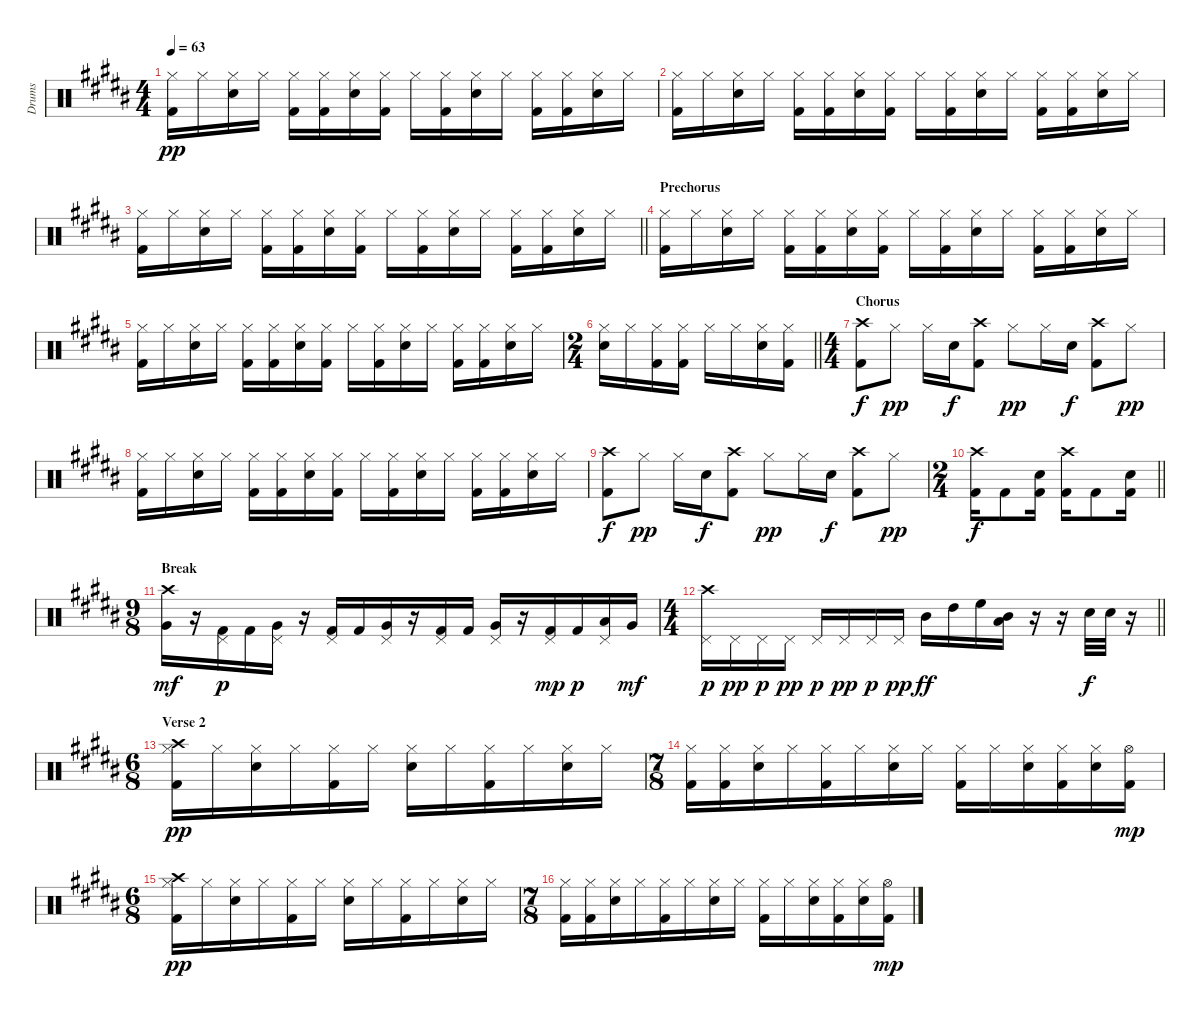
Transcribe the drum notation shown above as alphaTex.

\track ("Drums" "Drums") {instrument percussion}
\staff {score}
\articulation defaults
\ts (4 4)
\tempo 63
\clef neutral
\ks b
("Hi-Hat (closed)" "Kick (hit) 2").16{dy pp} "Hi-Hat (closed)".16 ("Snare (hit) 2" "Hi-Hat (closed)").16 "Hi-Hat (closed)".16 ("Hi-Hat (closed)" "Kick (hit) 2").16 ("Hi-Hat (closed)" "Kick (hit) 2").16 ("Snare (hit) 2" "Hi-Hat (closed)").16 ("Hi-Hat (closed)" "Kick (hit) 2").16 "Hi-Hat (closed)".16 ("Hi-Hat (closed)" "Kick (hit) 2").16 ("Snare (hit) 2" "Hi-Hat (closed)").16 "Hi-Hat (closed)".16 ("Hi-Hat (closed)" "Kick (hit) 2").16 ("Hi-Hat (closed)" "Kick (hit) 2").16 ("Snare (hit) 2" "Hi-Hat (closed)").16 "Hi-Hat (closed)".16 |
("Hi-Hat (closed)" "Kick (hit) 2").16 "Hi-Hat (closed)".16 ("Snare (hit) 2" "Hi-Hat (closed)").16 "Hi-Hat (closed)".16 ("Hi-Hat (closed)" "Kick (hit) 2").16 ("Hi-Hat (closed)" "Kick (hit) 2").16 ("Snare (hit) 2" "Hi-Hat (closed)").16 ("Hi-Hat (closed)" "Kick (hit) 2").16 "Hi-Hat (closed)".16 ("Hi-Hat (closed)" "Kick (hit) 2").16 ("Snare (hit) 2" "Hi-Hat (closed)").16 "Hi-Hat (closed)".16 ("Hi-Hat (closed)" "Kick (hit) 2").16 ("Hi-Hat (closed)" "Kick (hit) 2").16 ("Snare (hit) 2" "Hi-Hat (closed)").16 "Hi-Hat (closed)".16 |
\barLineRight lightlight
("Hi-Hat (closed)" "Kick (hit) 2").16 "Hi-Hat (closed)".16 ("Snare (hit) 2" "Hi-Hat (closed)").16 "Hi-Hat (closed)".16 ("Hi-Hat (closed)" "Kick (hit) 2").16 ("Hi-Hat (closed)" "Kick (hit) 2").16 ("Snare (hit) 2" "Hi-Hat (closed)").16 ("Hi-Hat (closed)" "Kick (hit) 2").16 "Hi-Hat (closed)".16 ("Hi-Hat (closed)" "Kick (hit) 2").16 ("Snare (hit) 2" "Hi-Hat (closed)").16 "Hi-Hat (closed)".16 ("Hi-Hat (closed)" "Kick (hit) 2").16 ("Hi-Hat (closed)" "Kick (hit) 2").16 ("Snare (hit) 2" "Hi-Hat (closed)").16 "Hi-Hat (closed)".16 |
\section ("" "Prechorus")
("Hi-Hat (closed)" "Kick (hit) 2").16 "Hi-Hat (closed)".16 ("Snare (hit) 2" "Hi-Hat (closed)").16 "Hi-Hat (closed)".16 ("Hi-Hat (closed)" "Kick (hit) 2").16 ("Hi-Hat (closed)" "Kick (hit) 2").16 ("Snare (hit) 2" "Hi-Hat (closed)").16 ("Hi-Hat (closed)" "Kick (hit) 2").16 "Hi-Hat (closed)".16 ("Hi-Hat (closed)" "Kick (hit) 2").16 ("Snare (hit) 2" "Hi-Hat (closed)").16 "Hi-Hat (closed)".16 ("Hi-Hat (closed)" "Kick (hit) 2").16 ("Hi-Hat (closed)" "Kick (hit) 2").16 ("Snare (hit) 2" "Hi-Hat (closed)").16 "Hi-Hat (closed)".16 |
("Hi-Hat (closed)" "Kick (hit) 2").16 "Hi-Hat (closed)".16 ("Snare (hit) 2" "Hi-Hat (closed)").16 "Hi-Hat (closed)".16 ("Hi-Hat (closed)" "Kick (hit) 2").16 ("Hi-Hat (closed)" "Kick (hit) 2").16 ("Snare (hit) 2" "Hi-Hat (closed)").16 ("Hi-Hat (closed)" "Kick (hit) 2").16 "Hi-Hat (closed)".16 ("Hi-Hat (closed)" "Kick (hit) 2").16 ("Snare (hit) 2" "Hi-Hat (closed)").16 "Hi-Hat (closed)".16 ("Hi-Hat (closed)" "Kick (hit) 2").16 ("Hi-Hat (closed)" "Kick (hit) 2").16 ("Snare (hit) 2" "Hi-Hat (closed)").16 "Hi-Hat (closed)".16 |
\ts (2 4)
\barLineRight lightlight
("Snare (hit) 2" "Hi-Hat (closed)").16 "Hi-Hat (closed)".16 ("Hi-Hat (closed)" "Kick (hit) 2").16 ("Hi-Hat (closed)" "Kick (hit) 2").16 "Hi-Hat (closed)".16 "Hi-Hat (closed)".16 ("Snare (hit) 2" "Hi-Hat (closed)").16 ("Hi-Hat (closed)" "Kick (hit) 2").16 |
\ts (4 4)
\section ("" "Chorus")
("Crash high (hit)" "Kick (hit) 2").8{dy f} "Hi-Hat (closed)".8{dy pp} "Hi-Hat (closed)".16 "Snare (hit) 2".16{dy f} ("Crash high (hit)" "Kick (hit) 2").8 "Hi-Hat (closed)".8{dy pp} "Hi-Hat (closed)".16 "Snare (hit) 2".16{dy f} ("Crash high (hit)" "Kick (hit) 2").8 "Hi-Hat (closed)".8{dy pp} |
("Hi-Hat (closed)" "Kick (hit) 2").16 "Hi-Hat (closed)".16 ("Snare (hit) 2" "Hi-Hat (closed)").16 "Hi-Hat (closed)".16 ("Hi-Hat (closed)" "Kick (hit) 2").16 ("Hi-Hat (closed)" "Kick (hit) 2").16 ("Snare (hit) 2" "Hi-Hat (closed)").16 ("Hi-Hat (closed)" "Kick (hit) 2").16 "Hi-Hat (closed)".16 ("Hi-Hat (closed)" "Kick (hit) 2").16 ("Snare (hit) 2" "Hi-Hat (closed)").16 "Hi-Hat (closed)".16 ("Hi-Hat (closed)" "Kick (hit) 2").16 ("Hi-Hat (closed)" "Kick (hit) 2").16 ("Snare (hit) 2" "Hi-Hat (closed)").16 "Hi-Hat (closed)".16 |
("Crash high (hit)" "Kick (hit) 2").8{dy f} "Hi-Hat (closed)".8{dy pp} "Hi-Hat (closed)".16 "Snare (hit) 2".16{dy f} ("Crash high (hit)" "Kick (hit) 2").8 "Hi-Hat (closed)".8{dy pp} "Hi-Hat (closed)".16 "Snare (hit) 2".16{dy f} ("Crash high (hit)" "Kick (hit) 2").8 "Hi-Hat (closed)".8{dy pp} |
\ts (2 4)
\barLineRight lightlight
("Crash high (hit)" "Kick (hit) 2").16{dy f} "Kick (hit) 2".8 ("Snare (hit) 2" "Kick (hit) 2").16 ("Crash high (hit)" "Kick (hit) 2").16 "Kick (hit) 2".8 ("Snare (hit) 2" "Kick (hit) 2").16 |
\ts (9 8)
\section ("" "Break")
("Crash high (hit)" "Very Low Tom (hit)").16{dy mf} r.16 ("Pedal Hi-Hat (hit)" "Kick (hit) 2").16{dy p} "Kick (hit) 2".16 ("Very Low Tom (hit)" "Pedal Hi-Hat (hit)").16 r.16 ("Pedal Hi-Hat (hit)" "Kick (hit) 2").16 "Kick (hit) 2".16 ("Very Low Tom (hit)" "Pedal Hi-Hat (hit)").16 r.16 ("Pedal Hi-Hat (hit)" "Kick (hit) 2").16 "Kick (hit) 2".16 ("Very Low Tom (hit)" "Pedal Hi-Hat (hit)").16 r.16 ("Pedal Hi-Hat (hit)" "Kick (hit) 2").16{dy mp} "Kick (hit) 2".16{dy p} ("Low Tom (hit)" "Pedal Hi-Hat (hit)").16 "Very Low Tom (hit)".16{dy mf} |
\ts (4 4)
\barLineRight lightlight
("Crash high (hit)" "Pedal Hi-Hat (hit)").16{dy p} "Pedal Hi-Hat (hit)".16{dy pp} "Pedal Hi-Hat (hit)".16{dy p} "Pedal Hi-Hat (hit)".16{dy pp} "Pedal Hi-Hat (hit)".16{dy p} "Pedal Hi-Hat (hit)".16{dy pp} "Pedal Hi-Hat (hit)".16{dy p} "Pedal Hi-Hat (hit)".16{dy pp} "Mid Tom (hit)".16{dy ff} "High Tom (hit)".16 "High Floor Tom (hit)".16 ("Mid Tom (hit)" "Low Tom (hit)").16 r.16 r.16 "Snare (hit) 2".32{dy f} "Snare (hit) 2".32 r.16 |
\ts (6 8)
\section ("" "Verse 2")
("Crash high (hit)" "Hi-Hat (closed)" "Kick (hit) 2").16{dy pp} "Hi-Hat (closed)".16 ("Snare (hit) 2" "Hi-Hat (closed)").16 "Hi-Hat (closed)".16 ("Hi-Hat (closed)" "Kick (hit) 2").16 "Hi-Hat (closed)".16 ("Snare (hit) 2" "Hi-Hat (closed)").16 "Hi-Hat (closed)".16 ("Hi-Hat (closed)" "Kick (hit) 2").16 "Hi-Hat (closed)".16 ("Snare (hit) 2" "Hi-Hat (closed)").16 "Hi-Hat (closed)".16 |
\ts (7 8)
("Hi-Hat (closed)" "Kick (hit) 2").16 ("Hi-Hat (closed)" "Kick (hit) 2").16 ("Snare (hit) 2" "Hi-Hat (closed)").16 "Hi-Hat (closed)".16 ("Hi-Hat (closed)" "Kick (hit) 2").16 "Hi-Hat (closed)".16 ("Snare (hit) 2" "Hi-Hat (closed)").16 "Hi-Hat (closed)".16 ("Hi-Hat (closed)" "Kick (hit) 2").16 "Hi-Hat (closed)".16 ("Snare (hit) 2" "Hi-Hat (closed)").16 ("Hi-Hat (closed)" "Kick (hit) 2").16 ("Snare (hit) 2" "Hi-Hat (closed)").16 ("Hi-Hat (open)" "Kick (hit) 2").16{dy mp} |
\ts (6 8)
("Crash high (hit)" "Hi-Hat (closed)" "Kick (hit) 2").16{dy pp} "Hi-Hat (closed)".16 ("Snare (hit) 2" "Hi-Hat (closed)").16 "Hi-Hat (closed)".16 ("Hi-Hat (closed)" "Kick (hit) 2").16 "Hi-Hat (closed)".16 ("Snare (hit) 2" "Hi-Hat (closed)").16 "Hi-Hat (closed)".16 ("Hi-Hat (closed)" "Kick (hit) 2").16 "Hi-Hat (closed)".16 ("Snare (hit) 2" "Hi-Hat (closed)").16 "Hi-Hat (closed)".16 |
\ts (7 8)
("Hi-Hat (closed)" "Kick (hit) 2").16 ("Hi-Hat (closed)" "Kick (hit) 2").16 ("Snare (hit) 2" "Hi-Hat (closed)").16 "Hi-Hat (closed)".16 ("Hi-Hat (closed)" "Kick (hit) 2").16 "Hi-Hat (closed)".16 ("Snare (hit) 2" "Hi-Hat (closed)").16 "Hi-Hat (closed)".16 ("Hi-Hat (closed)" "Kick (hit) 2").16 "Hi-Hat (closed)".16 ("Snare (hit) 2" "Hi-Hat (closed)").16 ("Hi-Hat (closed)" "Kick (hit) 2").16 ("Snare (hit) 2" "Hi-Hat (closed)").16 ("Hi-Hat (open)" "Kick (hit) 2").16{dy mp}
